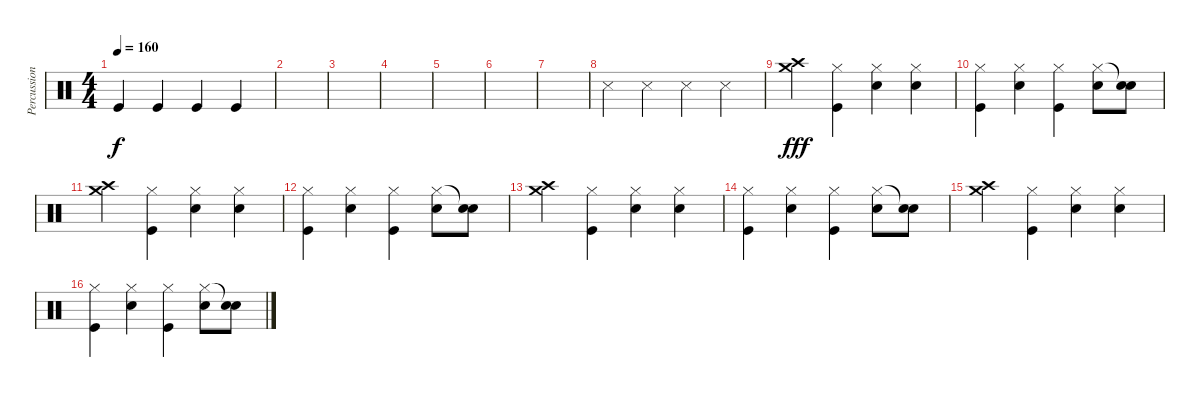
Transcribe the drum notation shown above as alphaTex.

\track ("Percussion" "Percussion") {instrument percussion}
\staff {score}
\articulation defaults
\ts (4 4)
\tempo 160
\clef neutral
\ks c "Kick (hit)".4{dy f} "Kick (hit)".4 "Kick (hit)".4 "Kick (hit)".4
|
|
|
|
|
|
|
"Snare (side stick) 3".4 "Snare (side stick) 3".4 "Snare (side stick) 3".4 "Snare (side stick) 3".4 |
("Crash high (hit)" "Crash medium (hit)").4{dy fff} ("Kick (hit)" "Hi-Hat (closed)").4 ("Snare (hit) 2" "Hi-Hat (closed)").4 ("Snare (hit) 2" "Hi-Hat (closed)").4 |
("Kick (hit)" "Hi-Hat (closed)").4 ("Snare (hit) 2" "Hi-Hat (closed)").4 ("Kick (hit)" "Hi-Hat (closed)").4 ("Snare (hit) 2" "Hi-Hat (closed)").8 ("Snare (hit) 2" "Snare (hit)"{t}).8 |
("Crash high (hit)" "Crash medium (hit)").4 ("Kick (hit)" "Hi-Hat (closed)").4 ("Snare (hit) 2" "Hi-Hat (closed)").4 ("Snare (hit) 2" "Hi-Hat (closed)").4 |
("Kick (hit)" "Hi-Hat (closed)").4 ("Snare (hit) 2" "Hi-Hat (closed)").4 ("Kick (hit)" "Hi-Hat (closed)").4 ("Snare (hit) 2" "Hi-Hat (closed)").8 ("Snare (hit) 2" "Snare (hit)"{t}).8 |
("Crash high (hit)" "Crash medium (hit)").4 ("Kick (hit)" "Hi-Hat (closed)").4 ("Snare (hit) 2" "Hi-Hat (closed)").4 ("Snare (hit) 2" "Hi-Hat (closed)").4 |
("Kick (hit)" "Hi-Hat (closed)").4 ("Snare (hit) 2" "Hi-Hat (closed)").4 ("Kick (hit)" "Hi-Hat (closed)").4 ("Snare (hit) 2" "Hi-Hat (closed)").8 ("Snare (hit) 2" "Snare (hit)"{t}).8 |
("Crash high (hit)" "Crash medium (hit)").4 ("Kick (hit)" "Hi-Hat (closed)").4 ("Snare (hit) 2" "Hi-Hat (closed)").4 ("Snare (hit) 2" "Hi-Hat (closed)").4 |
("Kick (hit)" "Hi-Hat (closed)").4 ("Snare (hit) 2" "Hi-Hat (closed)").4 ("Kick (hit)" "Hi-Hat (closed)").4 ("Snare (hit) 2" "Hi-Hat (closed)").8 ("Snare (hit) 2" "Snare (hit)"{t}).8
